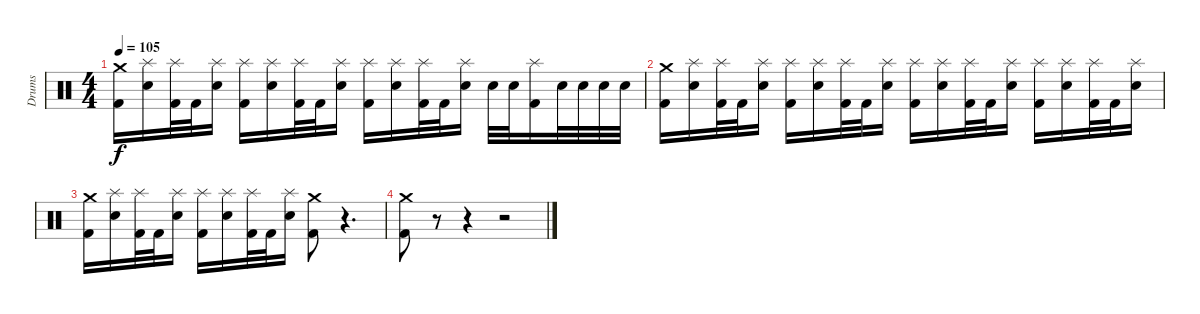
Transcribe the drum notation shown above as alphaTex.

\track ("Drums" "Drums") {instrument percussion}
\staff {score}
\articulation defaults
\ts (4 4)
\tempo 105
\clef neutral
\ks c
("Crash medium (hit)" "Kick (hit) 2").16{dy f} ("Splash (hit)" "Electric Snare (hit)").16 ("Splash (hit)" "Kick (hit) 2").32 "Kick (hit) 2".32 ("Splash (hit)" "Electric Snare (hit)").16 ("Splash (hit)" "Kick (hit) 2").16 ("Splash (hit)" "Electric Snare (hit)").16 ("Splash (hit)" "Kick (hit) 2").32 "Kick (hit) 2".32 ("Splash (hit)" "Electric Snare (hit)").16 ("Splash (hit)" "Kick (hit) 2").16 ("Splash (hit)" "Electric Snare (hit)").16 ("Splash (hit)" "Kick (hit) 2").32 "Kick (hit) 2".32 ("Splash (hit)" "Electric Snare (hit)").16 "Electric Snare (hit)".32 "Electric Snare (hit)".32 ("Splash (hit)" "Kick (hit) 2").16 "Electric Snare (hit)".32 "Electric Snare (hit)".32 "Electric Snare (hit)".32 "Electric Snare (hit)".32 |
("Crash medium (hit)" "Kick (hit) 2").16 ("Splash (hit)" "Electric Snare (hit)").16 ("Splash (hit)" "Kick (hit) 2").32 "Kick (hit) 2".32 ("Splash (hit)" "Electric Snare (hit)").16 ("Splash (hit)" "Kick (hit) 2").16 ("Splash (hit)" "Electric Snare (hit)").16 ("Splash (hit)" "Kick (hit) 2").32 "Kick (hit) 2".32 ("Splash (hit)" "Electric Snare (hit)").16 ("Splash (hit)" "Kick (hit) 2").16 ("Splash (hit)" "Electric Snare (hit)").16 ("Splash (hit)" "Kick (hit) 2").32 "Kick (hit) 2".32 ("Splash (hit)" "Electric Snare (hit)").16 ("Splash (hit)" "Kick (hit) 2").16 ("Splash (hit)" "Electric Snare (hit)").16 ("Splash (hit)" "Kick (hit) 2").32 "Kick (hit) 2".32 ("Splash (hit)" "Electric Snare (hit)").16 |
("Crash medium (hit)" "Kick (hit) 2").16 ("Splash (hit)" "Electric Snare (hit)").16 ("Splash (hit)" "Kick (hit) 2").32 "Kick (hit) 2".32 ("Splash (hit)" "Electric Snare (hit)").16 ("Splash (hit)" "Kick (hit) 2").16 ("Splash (hit)" "Electric Snare (hit)").16 ("Splash (hit)" "Kick (hit) 2").32 "Kick (hit) 2".32 ("Splash (hit)" "Electric Snare (hit)").16 ("Crash medium (hit)" "Kick (hit) 2").8 r.4{d} |
("Crash medium (hit)" "Kick (hit) 2").8 r.8 r.4 r.2
